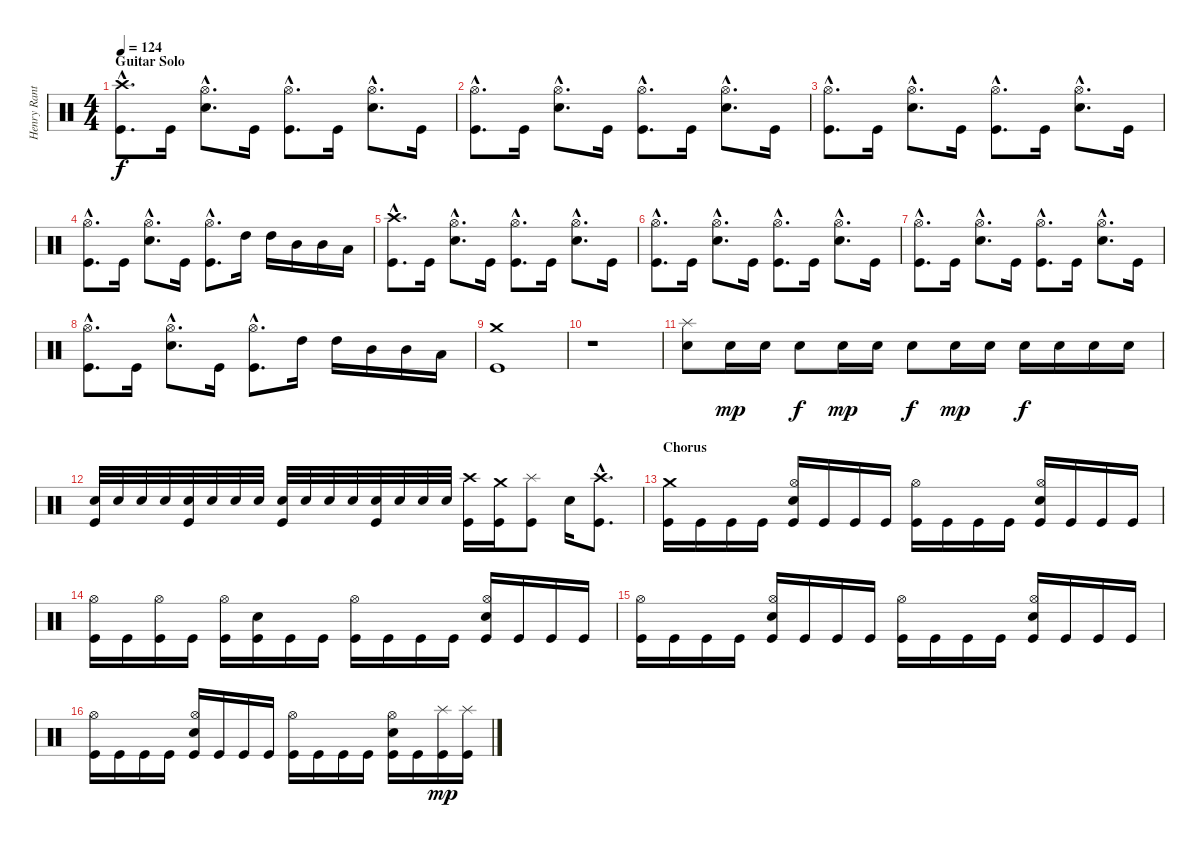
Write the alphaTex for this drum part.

\track ("Henry Ranta" "Henry Rant") {instrument percussion}
\staff {score}
\articulation defaults
\ts (4 4)
\section ("" "Guitar Solo")
\tempo 124
\clef neutral
\ks c
("Crash high (hit)"{hac} "Kick (hit)"{hac}).8{d dy f} "Kick (hit)".16 ("Hi-Hat (open)"{hac} "Electric Snare (hit)"{hac}).8{d} "Kick (hit)".16 ("Hi-Hat (open)"{hac} "Kick (hit)"{hac}).8{d} "Kick (hit)".16 ("Hi-Hat (open)"{hac} "Electric Snare (hit)"{hac}).8{d} "Kick (hit)".16 |
("Hi-Hat (open)"{hac} "Kick (hit)"{hac}).8{d} "Kick (hit)".16 ("Hi-Hat (open)"{hac} "Electric Snare (hit)"{hac}).8{d} "Kick (hit)".16 ("Hi-Hat (open)"{hac} "Kick (hit)"{hac}).8{d} "Kick (hit)".16 ("Hi-Hat (open)"{hac} "Electric Snare (hit)"{hac}).8{d} "Kick (hit)".16 |
("Hi-Hat (open)"{hac} "Kick (hit)"{hac}).8{d} "Kick (hit)".16 ("Hi-Hat (open)"{hac} "Electric Snare (hit)"{hac}).8{d} "Kick (hit)".16 ("Hi-Hat (open)"{hac} "Kick (hit)"{hac}).8{d} "Kick (hit)".16 ("Hi-Hat (open)"{hac} "Electric Snare (hit)"{hac}).8{d} "Kick (hit)".16 |
("Hi-Hat (open)"{hac} "Kick (hit)"{hac}).8{d} "Kick (hit)".16 ("Hi-Hat (open)"{hac} "Electric Snare (hit)"{hac}).8{d} "Kick (hit)".16 ("Hi-Hat (open)"{hac} "Kick (hit)"{hac}).8{d} "High Tom (hit)".16 "High Tom (hit)".16 "Mid Tom (hit)".16 "Mid Tom (hit)".16 "Low Tom (hit)".16 |
("Crash high (hit)"{hac} "Kick (hit)"{hac}).8{d} "Kick (hit)".16 ("Hi-Hat (open)"{hac} "Electric Snare (hit)"{hac}).8{d} "Kick (hit)".16 ("Hi-Hat (open)"{hac} "Kick (hit)"{hac}).8{d} "Kick (hit)".16 ("Hi-Hat (open)"{hac} "Electric Snare (hit)"{hac}).8{d} "Kick (hit)".16 |
("Hi-Hat (open)"{hac} "Kick (hit)"{hac}).8{d} "Kick (hit)".16 ("Hi-Hat (open)"{hac} "Electric Snare (hit)"{hac}).8{d} "Kick (hit)".16 ("Hi-Hat (open)"{hac} "Kick (hit)"{hac}).8{d} "Kick (hit)".16 ("Hi-Hat (open)"{hac} "Electric Snare (hit)"{hac}).8{d} "Kick (hit)".16 |
("Hi-Hat (open)"{hac} "Kick (hit)"{hac}).8{d} "Kick (hit)".16 ("Hi-Hat (open)"{hac} "Electric Snare (hit)"{hac}).8{d} "Kick (hit)".16 ("Hi-Hat (open)"{hac} "Kick (hit)"{hac}).8{d} "Kick (hit)".16 ("Hi-Hat (open)"{hac} "Electric Snare (hit)"{hac}).8{d} "Kick (hit)".16 |
("Hi-Hat (open)"{hac} "Kick (hit)"{hac}).8{d} "Kick (hit)".16 ("Hi-Hat (open)"{hac} "Electric Snare (hit)"{hac}).8{d} "Kick (hit)".16 ("Hi-Hat (open)"{hac} "Kick (hit)"{hac}).8{d} "High Tom (hit)".16 "High Tom (hit)".16 "Mid Tom (hit)".16 "Mid Tom (hit)".16 "Low Tom (hit)".16 |
("Crash medium (hit)" "Kick (hit)").1 |
r.1 |
("Splash (hit)" "Electric Snare (hit)").8 "Electric Snare (hit)".16{dy mp} "Electric Snare (hit)".16 "Electric Snare (hit)".8{dy f} "Electric Snare (hit)".16{dy mp} "Electric Snare (hit)".16 "Electric Snare (hit)".8{dy f} "Electric Snare (hit)".16{dy mp} "Electric Snare (hit)".16 "Electric Snare (hit)".16{dy f} "Electric Snare (hit)".16 "Electric Snare (hit)".16 "Electric Snare (hit)".16 |
("Electric Snare (hit)" "Kick (hit)").32 "Electric Snare (hit)".32 "Electric Snare (hit)".32 "Electric Snare (hit)".32 ("Electric Snare (hit)" "Kick (hit)").32 "Electric Snare (hit)".32 "Electric Snare (hit)".32 "Electric Snare (hit)".32 ("Electric Snare (hit)" "Kick (hit)").32 "Electric Snare (hit)".32 "Electric Snare (hit)".32 "Electric Snare (hit)".32 ("Electric Snare (hit)" "Kick (hit)").32 "Electric Snare (hit)".32 "Electric Snare (hit)".32 "Electric Snare (hit)".32 ("Crash high (hit)" "Kick (hit)").16 ("Crash medium (hit)" "Kick (hit)").16 ("Splash (hit)" "Kick (hit)").8 "Electric Snare (hit)".16 ("Crash high (hit)"{hac} "Kick (hit)"{hac}).8{d} |
\section ("" "Chorus")
("Crash medium (hit)" "Kick (hit)").16 "Kick (hit)".16 "Kick (hit)".16 "Kick (hit)".16 ("Hi-Hat (open)" "Electric Snare (hit)" "Kick (hit)").16 "Kick (hit)".16 "Kick (hit)".16 "Kick (hit)".16 ("Hi-Hat (open)" "Kick (hit)").16 "Kick (hit)".16 "Kick (hit)".16 "Kick (hit)".16 ("Hi-Hat (open)" "Electric Snare (hit)" "Kick (hit)").16 "Kick (hit)".16 "Kick (hit)".16 "Kick (hit)".16 |
("Hi-Hat (open)" "Kick (hit)").16 "Kick (hit)".16 ("Hi-Hat (open)" "Kick (hit)").16 "Kick (hit)".16 ("Hi-Hat (open)" "Kick (hit)").16 ("Electric Snare (hit)" "Kick (hit)").16 "Kick (hit)".16 "Kick (hit)".16 ("Hi-Hat (open)" "Kick (hit)").16 "Kick (hit)".16 "Kick (hit)".16 "Kick (hit)".16 ("Hi-Hat (open)" "Electric Snare (hit)" "Kick (hit)").16 "Kick (hit)".16 "Kick (hit)".16 "Kick (hit)".16 |
("Hi-Hat (open)" "Kick (hit)").16 "Kick (hit)".16 "Kick (hit)".16 "Kick (hit)".16 ("Hi-Hat (open)" "Electric Snare (hit)" "Kick (hit)").16 "Kick (hit)".16 "Kick (hit)".16 "Kick (hit)".16 ("Hi-Hat (open)" "Kick (hit)").16 "Kick (hit)".16 "Kick (hit)".16 "Kick (hit)".16 ("Hi-Hat (open)" "Electric Snare (hit)" "Kick (hit)").16 "Kick (hit)".16 "Kick (hit)".16 "Kick (hit)".16 |
("Hi-Hat (open)" "Kick (hit)").16 "Kick (hit)".16 "Kick (hit)".16 "Kick (hit)".16 ("Hi-Hat (open)" "Electric Snare (hit)" "Kick (hit)").16 "Kick (hit)".16 "Kick (hit)".16 "Kick (hit)".16 ("Hi-Hat (open)" "Kick (hit)").16 "Kick (hit)".16 "Kick (hit)".16 "Kick (hit)".16 ("Hi-Hat (open)" "Electric Snare (hit)" "Kick (hit)").16 "Kick (hit)".16 ("Splash (hit)" "Kick (hit)").16{dy mp} ("Splash (hit)" "Kick (hit)").16
